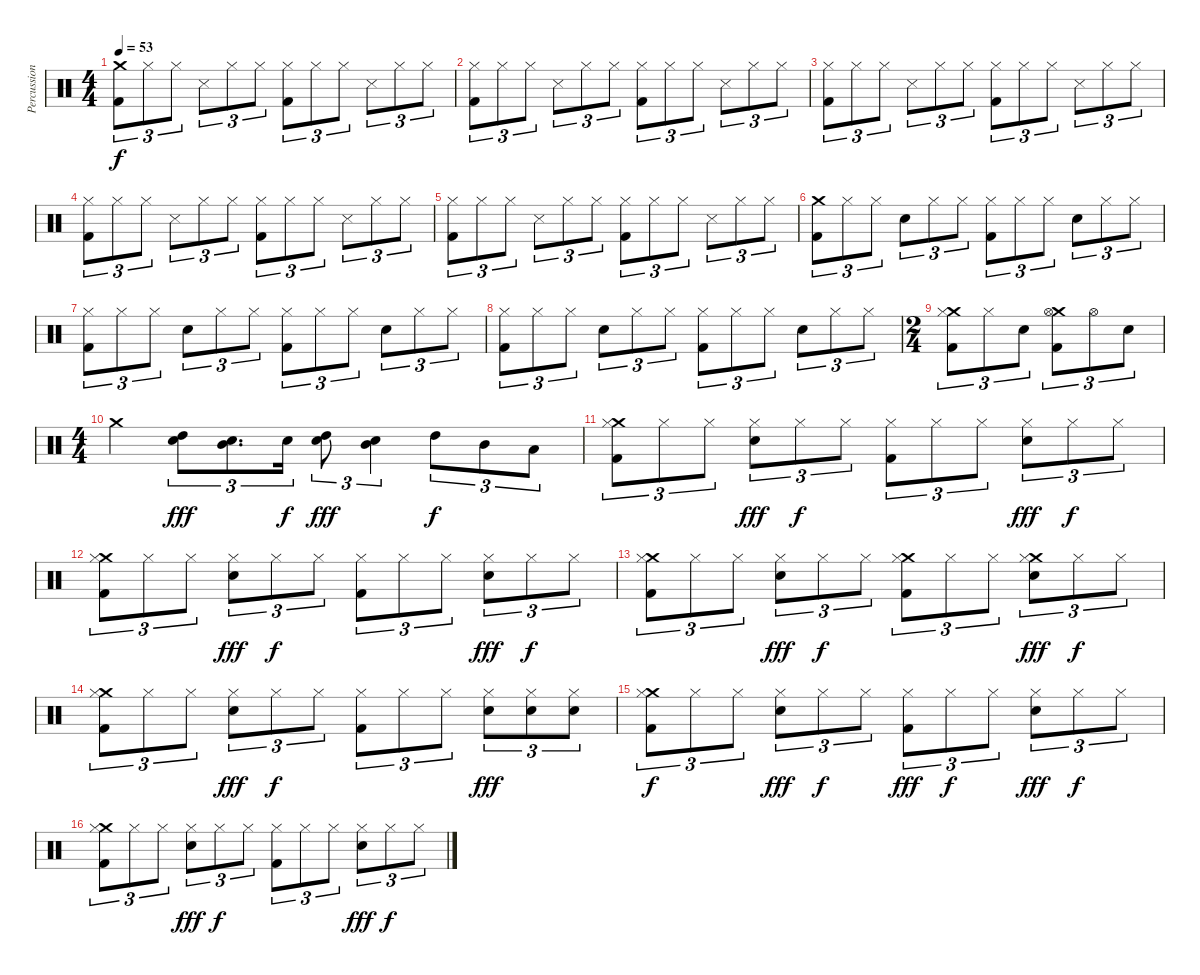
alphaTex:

\track ("Percussion" "Percussion") {instrument percussion}
\staff {score}
\articulation defaults
\ts (4 4)
\tempo 53
\clef neutral
\ks c
("Crash medium (hit)" "Kick (hit) 2").8{tu (3 2) dy f} "Hi-Hat (closed)".8{tu (3 2) volume 3} "Hi-Hat (closed)".8{tu (3 2) volume 3} "Snare (side stick) 3".8{tu (3 2) volume 16} "Hi-Hat (closed)".8{tu (3 2) volume 3} "Hi-Hat (closed)".8{tu (3 2) volume 3} ("Hi-Hat (closed)" "Kick (hit) 2").8{tu (3 2) volume 3} "Hi-Hat (closed)".8{tu (3 2) volume 3} "Hi-Hat (closed)".8{tu (3 2) volume 3} "Snare (side stick) 3".8{tu (3 2) volume 16} "Hi-Hat (closed)".8{tu (3 2) volume 3} "Hi-Hat (closed)".8{tu (3 2) volume 3} |
("Hi-Hat (closed)" "Kick (hit) 2").8{tu (3 2) volume 3} "Hi-Hat (closed)".8{tu (3 2) volume 3} "Hi-Hat (closed)".8{tu (3 2) volume 3} "Snare (side stick) 3".8{tu (3 2) volume 16} "Hi-Hat (closed)".8{tu (3 2) volume 3} "Hi-Hat (closed)".8{tu (3 2) volume 3} ("Hi-Hat (closed)" "Kick (hit) 2").8{tu (3 2) volume 3} "Hi-Hat (closed)".8{tu (3 2) volume 3} "Hi-Hat (closed)".8{tu (3 2) volume 3} "Snare (side stick) 3".8{tu (3 2) volume 16} "Hi-Hat (closed)".8{tu (3 2) volume 3} "Hi-Hat (closed)".8{tu (3 2) volume 3} |
("Hi-Hat (closed)" "Kick (hit) 2").8{tu (3 2) volume 3} "Hi-Hat (closed)".8{tu (3 2) volume 3} "Hi-Hat (closed)".8{tu (3 2) volume 3} "Snare (side stick) 3".8{tu (3 2) volume 16} "Hi-Hat (closed)".8{tu (3 2) volume 3} "Hi-Hat (closed)".8{tu (3 2) volume 3} ("Hi-Hat (closed)" "Kick (hit) 2").8{tu (3 2) volume 3} "Hi-Hat (closed)".8{tu (3 2) volume 3} "Hi-Hat (closed)".8{tu (3 2) volume 3} "Snare (side stick) 3".8{tu (3 2) volume 16} "Hi-Hat (closed)".8{tu (3 2) volume 3} "Hi-Hat (closed)".8{tu (3 2) volume 3} |
("Hi-Hat (closed)" "Kick (hit) 2").8{tu (3 2) volume 3} "Hi-Hat (closed)".8{tu (3 2) volume 3} "Hi-Hat (closed)".8{tu (3 2) volume 3} "Snare (side stick) 3".8{tu (3 2) volume 16} "Hi-Hat (closed)".8{tu (3 2) volume 3} "Hi-Hat (closed)".8{tu (3 2) volume 3} ("Hi-Hat (closed)" "Kick (hit) 2").8{tu (3 2) volume 3} "Hi-Hat (closed)".8{tu (3 2) volume 3} "Hi-Hat (closed)".8{tu (3 2) volume 3} "Snare (side stick) 3".8{tu (3 2) volume 16} "Hi-Hat (closed)".8{tu (3 2) volume 3} "Hi-Hat (closed)".8{tu (3 2) volume 3} |
("Hi-Hat (closed)" "Kick (hit) 2").8{tu (3 2) volume 3} "Hi-Hat (closed)".8{tu (3 2) volume 3} "Hi-Hat (closed)".8{tu (3 2) volume 3} "Snare (side stick) 3".8{tu (3 2) volume 16} "Hi-Hat (closed)".8{tu (3 2) volume 3} "Hi-Hat (closed)".8{tu (3 2) volume 3} ("Hi-Hat (closed)" "Kick (hit) 2").8{tu (3 2) volume 3} "Hi-Hat (closed)".8{tu (3 2) volume 3} "Hi-Hat (closed)".8{tu (3 2) volume 3} "Snare (side stick) 3".8{tu (3 2) volume 16} "Hi-Hat (closed)".8{tu (3 2) volume 3} "Hi-Hat (closed)".8{tu (3 2) volume 3} |
("Crash medium (hit)" "Kick (hit) 2").8{tu (3 2)} "Hi-Hat (closed)".8{tu (3 2) volume 5} "Hi-Hat (closed)".8{tu (3 2) volume 5} "Snare (hit) 2".8{tu (3 2) volume 16} "Hi-Hat (closed)".8{tu (3 2) volume 5} "Hi-Hat (closed)".8{tu (3 2) volume 5} ("Hi-Hat (closed)" "Kick (hit) 2").8{tu (3 2) volume 5} "Hi-Hat (closed)".8{tu (3 2) volume 5} "Hi-Hat (closed)".8{tu (3 2) volume 5} "Snare (hit) 2".8{tu (3 2) volume 16} "Hi-Hat (closed)".8{tu (3 2) volume 5} "Hi-Hat (closed)".8{tu (3 2) volume 5} |
("Hi-Hat (closed)" "Kick (hit) 2").8{tu (3 2) volume 6} "Hi-Hat (closed)".8{tu (3 2) volume 5} "Hi-Hat (closed)".8{tu (3 2) volume 5} "Snare (hit) 2".8{tu (3 2) volume 16} "Hi-Hat (closed)".8{tu (3 2) volume 5} "Hi-Hat (closed)".8{tu (3 2) volume 5} ("Hi-Hat (closed)" "Kick (hit) 2").8{tu (3 2) volume 5} "Hi-Hat (closed)".8{tu (3 2) volume 5} "Hi-Hat (closed)".8{tu (3 2) volume 5} "Snare (hit) 2".8{tu (3 2) volume 16} "Hi-Hat (closed)".8{tu (3 2) volume 5} "Hi-Hat (closed)".8{tu (3 2) volume 5} |
("Hi-Hat (closed)" "Kick (hit) 2").8{tu (3 2) volume 6} "Hi-Hat (closed)".8{tu (3 2) volume 5} "Hi-Hat (closed)".8{tu (3 2) volume 5} "Snare (hit) 2".8{tu (3 2) volume 16} "Hi-Hat (closed)".8{tu (3 2) volume 5} "Hi-Hat (closed)".8{tu (3 2) volume 5} ("Hi-Hat (closed)" "Kick (hit) 2").8{tu (3 2) volume 5} "Hi-Hat (closed)".8{tu (3 2) volume 5} "Hi-Hat (closed)".8{tu (3 2) volume 5} "Snare (hit) 2".8{tu (3 2) volume 16} "Hi-Hat (closed)".8{tu (3 2) volume 5} "Hi-Hat (closed)".8{tu (3 2) volume 5} |
\ts (2 4)
("Crash medium (hit)" "Hi-Hat (closed)" "Kick (hit) 2").8{tu (3 2) volume 14} "Hi-Hat (closed)".8{tu (3 2)} "Snare (hit) 2".8{tu (3 2)} ("Crash medium (hit)" "Hi-Hat (open)" "Kick (hit) 2").8{tu (3 2)} "Hi-Hat (open)".8{tu (3 2)} "Snare (hit) 2".8{tu (3 2)} |
\ts (4 4)
"Crash medium (hit)".4 ("High Tom (hit)" "Snare (hit) 2").8{tu (3 2) dy fff} ("Mid Tom (hit)" "Snare (hit) 2").8{d tu (3 2)} "Snare (hit) 2".16{tu (3 2) dy f} ("High Tom (hit)" "Snare (hit) 2").8{tu (3 2) dy fff} ("Mid Tom (hit)" "Snare (hit) 2").4{tu (3 2)} "High Tom (hit)".8{tu (3 2) dy f} "Mid Tom (hit)".8{tu (3 2)} "Low Tom (hit)".8{tu (3 2)} |
("Crash medium (hit)" "Hi-Hat (closed)" "Kick (hit) 2").8{tu (3 2)} "Hi-Hat (closed)".8{tu (3 2)} "Hi-Hat (closed)".8{tu (3 2)} ("Snare (hit) 2" "Hi-Hat (closed)").8{tu (3 2) dy fff} "Hi-Hat (closed)".8{tu (3 2) dy f} "Hi-Hat (closed)".8{tu (3 2)} ("Hi-Hat (closed)" "Kick (hit) 2").8{tu (3 2)} "Hi-Hat (closed)".8{tu (3 2)} "Hi-Hat (closed)".8{tu (3 2)} ("Snare (hit) 2" "Hi-Hat (closed)").8{tu (3 2) dy fff} "Hi-Hat (closed)".8{tu (3 2) dy f} "Hi-Hat (closed)".8{tu (3 2)} |
("Crash medium (hit)" "Hi-Hat (closed)" "Kick (hit) 2").8{tu (3 2)} "Hi-Hat (closed)".8{tu (3 2)} "Hi-Hat (closed)".8{tu (3 2)} ("Snare (hit) 2" "Hi-Hat (closed)").8{tu (3 2) dy fff} "Hi-Hat (closed)".8{tu (3 2) dy f} "Hi-Hat (closed)".8{tu (3 2)} ("Hi-Hat (closed)" "Kick (hit) 2").8{tu (3 2)} "Hi-Hat (closed)".8{tu (3 2)} "Hi-Hat (closed)".8{tu (3 2)} ("Snare (hit) 2" "Hi-Hat (closed)").8{tu (3 2) dy fff} "Hi-Hat (closed)".8{tu (3 2) dy f} "Hi-Hat (closed)".8{tu (3 2)} |
("Crash medium (hit)" "Hi-Hat (closed)" "Kick (hit) 2").8{tu (3 2)} "Hi-Hat (closed)".8{tu (3 2)} "Hi-Hat (closed)".8{tu (3 2)} ("Snare (hit) 2" "Hi-Hat (closed)").8{tu (3 2) dy fff} "Hi-Hat (closed)".8{tu (3 2) dy f} "Hi-Hat (closed)".8{tu (3 2)} ("Crash medium (hit)" "Hi-Hat (closed)" "Kick (hit) 2").8{tu (3 2)} "Hi-Hat (closed)".8{tu (3 2)} "Hi-Hat (closed)".8{tu (3 2)} ("Crash medium (hit)" "Snare (hit) 2" "Hi-Hat (closed)").8{tu (3 2) dy fff} "Hi-Hat (closed)".8{tu (3 2) dy f} "Hi-Hat (closed)".8{tu (3 2)} |
("Crash medium (hit)" "Hi-Hat (closed)" "Kick (hit) 2").8{tu (3 2)} "Hi-Hat (closed)".8{tu (3 2)} "Hi-Hat (closed)".8{tu (3 2)} ("Snare (hit) 2" "Hi-Hat (closed)").8{tu (3 2) dy fff} "Hi-Hat (closed)".8{tu (3 2) dy f} "Hi-Hat (closed)".8{tu (3 2)} ("Hi-Hat (closed)" "Kick (hit) 2").8{tu (3 2)} "Hi-Hat (closed)".8{tu (3 2)} "Hi-Hat (closed)".8{tu (3 2)} ("Snare (hit) 2" "Hi-Hat (closed)").8{tu (3 2) dy fff} ("Snare (hit) 2" "Hi-Hat (closed)").8{tu (3 2)} ("Snare (hit) 2" "Hi-Hat (closed)").8{tu (3 2)} |
("Crash medium (hit)" "Hi-Hat (closed)" "Kick (hit) 2").8{tu (3 2) dy f} "Hi-Hat (closed)".8{tu (3 2)} "Hi-Hat (closed)".8{tu (3 2)} ("Snare (hit) 2" "Hi-Hat (closed)").8{tu (3 2) dy fff} "Hi-Hat (closed)".8{tu (3 2) dy f} "Hi-Hat (closed)".8{tu (3 2)} ("Hi-Hat (closed)" "Kick (hit) 2").8{tu (3 2) dy fff} "Hi-Hat (closed)".8{tu (3 2) dy f} "Hi-Hat (closed)".8{tu (3 2)} ("Snare (hit) 2" "Hi-Hat (closed)").8{tu (3 2) dy fff} "Hi-Hat (closed)".8{tu (3 2) dy f} "Hi-Hat (closed)".8{tu (3 2)} |
("Crash medium (hit)" "Hi-Hat (closed)" "Kick (hit) 2").8{tu (3 2)} "Hi-Hat (closed)".8{tu (3 2)} "Hi-Hat (closed)".8{tu (3 2)} ("Snare (hit) 2" "Hi-Hat (closed)").8{tu (3 2) dy fff} "Hi-Hat (closed)".8{tu (3 2) dy f} "Hi-Hat (closed)".8{tu (3 2)} ("Hi-Hat (closed)" "Kick (hit) 2").8{tu (3 2)} "Hi-Hat (closed)".8{tu (3 2)} "Hi-Hat (closed)".8{tu (3 2)} ("Snare (hit) 2" "Hi-Hat (closed)").8{tu (3 2) dy fff} "Hi-Hat (closed)".8{tu (3 2) dy f} "Hi-Hat (closed)".8{tu (3 2)}
